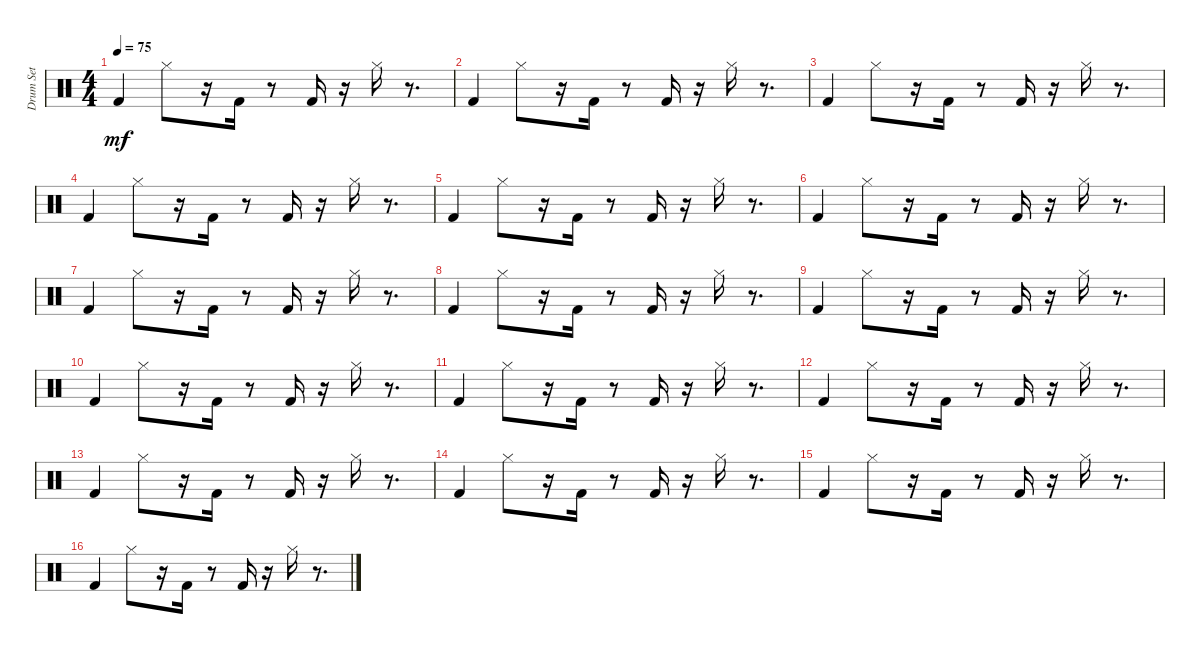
\track ("Drum Set" "Drum Set") {instrument percussion}
\staff {score}
\articulation defaults
\ts (4 4)
\tempo 75
\clef neutral
\ks c "Kick (hit) 2".4{dy mf} "Hi-Hat (closed)".8
r.16 "Kick (hit) 2".16 r.8 "Kick (hit) 2".16 r.16 "Hi-Hat (closed)".16 r.8{d} |
"Kick (hit) 2".4 "Hi-Hat (closed)".8 r.16 "Kick (hit) 2".16 r.8 "Kick (hit) 2".16 r.16 "Hi-Hat (closed)".16 r.8{d} |
"Kick (hit) 2".4 "Hi-Hat (closed)".8 r.16 "Kick (hit) 2".16 r.8 "Kick (hit) 2".16 r.16 "Hi-Hat (closed)".16 r.8{d} |
"Kick (hit) 2".4 "Hi-Hat (closed)".8 r.16 "Kick (hit) 2".16 r.8 "Kick (hit) 2".16 r.16 "Hi-Hat (closed)".16 r.8{d} |
"Kick (hit) 2".4 "Hi-Hat (closed)".8 r.16 "Kick (hit) 2".16 r.8 "Kick (hit) 2".16 r.16 "Hi-Hat (closed)".16 r.8{d} |
"Kick (hit) 2".4 "Hi-Hat (closed)".8 r.16 "Kick (hit) 2".16 r.8 "Kick (hit) 2".16 r.16 "Hi-Hat (closed)".16 r.8{d} |
"Kick (hit) 2".4 "Hi-Hat (closed)".8 r.16 "Kick (hit) 2".16 r.8 "Kick (hit) 2".16 r.16 "Hi-Hat (closed)".16 r.8{d} |
"Kick (hit) 2".4 "Hi-Hat (closed)".8 r.16 "Kick (hit) 2".16 r.8 "Kick (hit) 2".16 r.16 "Hi-Hat (closed)".16 r.8{d} |
"Kick (hit) 2".4 "Hi-Hat (closed)".8 r.16 "Kick (hit) 2".16 r.8 "Kick (hit) 2".16 r.16 "Hi-Hat (closed)".16 r.8{d} |
"Kick (hit) 2".4 "Hi-Hat (closed)".8 r.16 "Kick (hit) 2".16 r.8 "Kick (hit) 2".16 r.16 "Hi-Hat (closed)".16 r.8{d} |
"Kick (hit) 2".4 "Hi-Hat (closed)".8 r.16 "Kick (hit) 2".16 r.8 "Kick (hit) 2".16 r.16 "Hi-Hat (closed)".16 r.8{d} |
"Kick (hit) 2".4 "Hi-Hat (closed)".8 r.16 "Kick (hit) 2".16 r.8 "Kick (hit) 2".16 r.16 "Hi-Hat (closed)".16 r.8{d} |
"Kick (hit) 2".4 "Hi-Hat (closed)".8 r.16 "Kick (hit) 2".16 r.8 "Kick (hit) 2".16 r.16 "Hi-Hat (closed)".16 r.8{d} |
"Kick (hit) 2".4 "Hi-Hat (closed)".8 r.16 "Kick (hit) 2".16 r.8 "Kick (hit) 2".16 r.16 "Hi-Hat (closed)".16 r.8{d} |
"Kick (hit) 2".4 "Hi-Hat (closed)".8 r.16 "Kick (hit) 2".16 r.8 "Kick (hit) 2".16 r.16 "Hi-Hat (closed)".16 r.8{d} |
"Kick (hit) 2".4 "Hi-Hat (closed)".8 r.16 "Kick (hit) 2".16 r.8 "Kick (hit) 2".16 r.16 "Hi-Hat (closed)".16 r.8{d}
